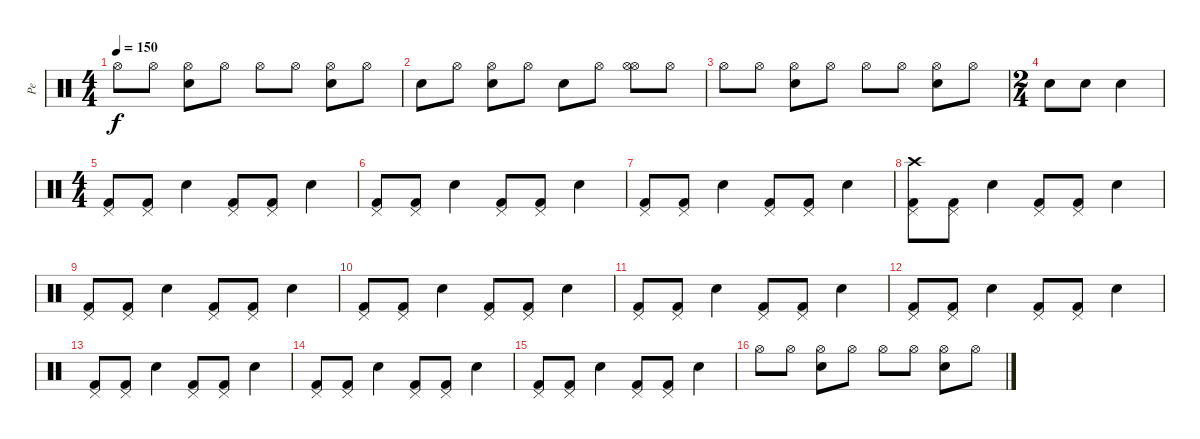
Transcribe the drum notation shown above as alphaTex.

\track ("Pe" "Pe") {instrument percussion}
\staff {score}
\articulation defaults
\ts (4 4)
\tempo 150
\clef neutral
\ks c "Hi-Hat (open)".8{dy f} "Hi-Hat (open)".8
("Electric Snare (hit)" "Hi-Hat (open)").8 "Hi-Hat (open)".8 "Hi-Hat (open)".8 "Hi-Hat (open)".8 ("Electric Snare (hit)" "Hi-Hat (open)").8 "Hi-Hat (open)".8 |
"Electric Snare (hit)".8 "Hi-Hat (open)".8 ("Electric Snare (hit)" "Hi-Hat (open)").8 "Hi-Hat (open)".8 "Electric Snare (hit)".8 "Hi-Hat (open)".8 ("Hi-Hat (open)" "Hi-Hat (open)").8 "Hi-Hat (open)".8 |
"Hi-Hat (open)".8 "Hi-Hat (open)".8 ("Electric Snare (hit)" "Hi-Hat (open)").8 "Hi-Hat (open)".8 "Hi-Hat (open)".8 "Hi-Hat (open)".8 ("Electric Snare (hit)" "Hi-Hat (open)").8 "Hi-Hat (open)".8 |
\ts (2 4)
"Electric Snare (hit)".8 "Electric Snare (hit)".8 "Electric Snare (hit)".4 |
\ts (4 4)
("Kick (hit) 2" "Pedal Hi-Hat (hit)").8 ("Kick (hit) 2" "Pedal Hi-Hat (hit)").8 "Electric Snare (hit)".4 ("Kick (hit) 2" "Pedal Hi-Hat (hit)").8 ("Kick (hit) 2" "Pedal Hi-Hat (hit)").8 "Electric Snare (hit)".4 |
("Kick (hit) 2" "Pedal Hi-Hat (hit)").8 ("Kick (hit) 2" "Pedal Hi-Hat (hit)").8 "Electric Snare (hit)".4 ("Kick (hit) 2" "Pedal Hi-Hat (hit)").8 ("Kick (hit) 2" "Pedal Hi-Hat (hit)").8 "Electric Snare (hit)".4 |
("Kick (hit) 2" "Pedal Hi-Hat (hit)").8 ("Kick (hit) 2" "Pedal Hi-Hat (hit)").8 "Electric Snare (hit)".4 ("Kick (hit) 2" "Pedal Hi-Hat (hit)").8 ("Kick (hit) 2" "Pedal Hi-Hat (hit)").8 "Electric Snare (hit)".4 |
("Kick (hit) 2" "Pedal Hi-Hat (hit)" "Crash high (hit)").8 ("Kick (hit) 2" "Pedal Hi-Hat (hit)").8 "Electric Snare (hit)".4 ("Kick (hit) 2" "Pedal Hi-Hat (hit)").8 ("Kick (hit) 2" "Pedal Hi-Hat (hit)").8 "Electric Snare (hit)".4 |
("Kick (hit) 2" "Pedal Hi-Hat (hit)").8 ("Kick (hit) 2" "Pedal Hi-Hat (hit)").8 "Electric Snare (hit)".4 ("Kick (hit) 2" "Pedal Hi-Hat (hit)").8 ("Kick (hit) 2" "Pedal Hi-Hat (hit)").8 "Electric Snare (hit)".4 |
("Kick (hit) 2" "Pedal Hi-Hat (hit)").8 ("Kick (hit) 2" "Pedal Hi-Hat (hit)").8 "Electric Snare (hit)".4 ("Kick (hit) 2" "Pedal Hi-Hat (hit)").8 ("Kick (hit) 2" "Pedal Hi-Hat (hit)").8 "Electric Snare (hit)".4 |
("Kick (hit) 2" "Pedal Hi-Hat (hit)").8 ("Kick (hit) 2" "Pedal Hi-Hat (hit)").8 "Electric Snare (hit)".4 ("Kick (hit) 2" "Pedal Hi-Hat (hit)").8 ("Kick (hit) 2" "Pedal Hi-Hat (hit)").8 "Electric Snare (hit)".4 |
("Kick (hit) 2" "Pedal Hi-Hat (hit)").8 ("Kick (hit) 2" "Pedal Hi-Hat (hit)").8 "Electric Snare (hit)".4 ("Kick (hit) 2" "Pedal Hi-Hat (hit)").8 ("Kick (hit) 2" "Pedal Hi-Hat (hit)").8 "Electric Snare (hit)".4 |
("Kick (hit) 2" "Pedal Hi-Hat (hit)").8 ("Kick (hit) 2" "Pedal Hi-Hat (hit)").8 "Electric Snare (hit)".4 ("Kick (hit) 2" "Pedal Hi-Hat (hit)").8 ("Kick (hit) 2" "Pedal Hi-Hat (hit)").8 "Electric Snare (hit)".4 |
("Kick (hit) 2" "Pedal Hi-Hat (hit)").8 ("Kick (hit) 2" "Pedal Hi-Hat (hit)").8 "Electric Snare (hit)".4 ("Kick (hit) 2" "Pedal Hi-Hat (hit)").8 ("Kick (hit) 2" "Pedal Hi-Hat (hit)").8 "Electric Snare (hit)".4 |
("Kick (hit) 2" "Pedal Hi-Hat (hit)").8 ("Kick (hit) 2" "Pedal Hi-Hat (hit)").8 "Electric Snare (hit)".4 ("Kick (hit) 2" "Pedal Hi-Hat (hit)").8 ("Kick (hit) 2" "Pedal Hi-Hat (hit)").8 "Electric Snare (hit)".4 |
"Hi-Hat (open)".8 "Hi-Hat (open)".8 ("Electric Snare (hit)" "Hi-Hat (open)").8 "Hi-Hat (open)".8 "Hi-Hat (open)".8 "Hi-Hat (open)".8 ("Electric Snare (hit)" "Hi-Hat (open)").8 "Hi-Hat (open)".8
